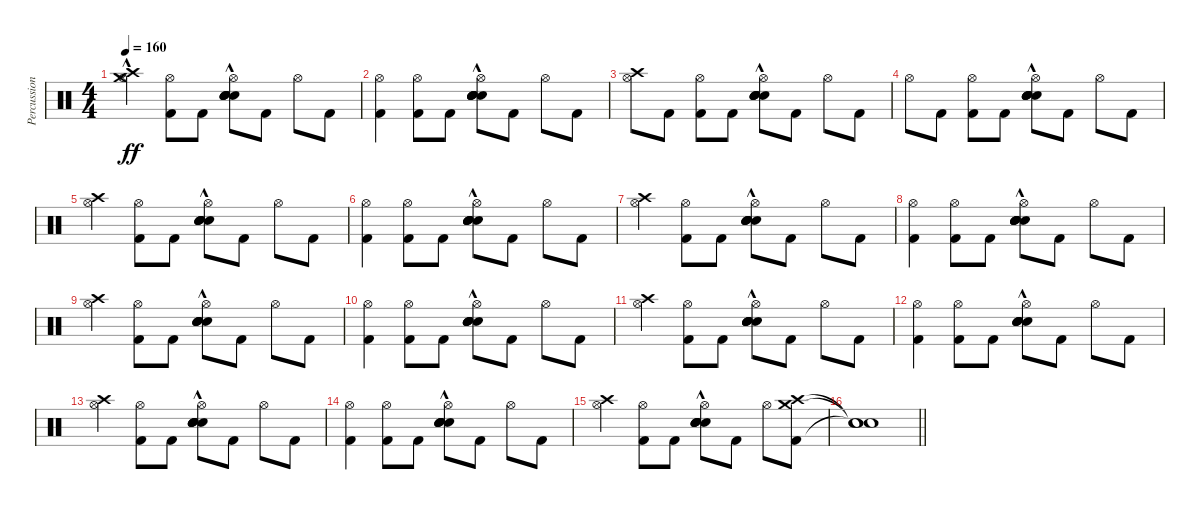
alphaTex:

\track ("Percussion" "Percussion") {instrument percussion}
\staff {score}
\articulation defaults
\ts (4 4)
\tempo 160
\clef neutral
\ks c
("Hi-Hat (open)"{hac} "Crash high (hit)"{hac} "Crash medium (hit)").4{dy ff} ("Hi-Hat (open)" "Kick (hit) 2").8 "Kick (hit) 2".8 ("Hi-Hat (open)" "Electric Snare (hit)"{hac} "Electric Snare (hit)"{hac} "Electric Snare (hit)"{hac} "Electric Snare (hit)"{hac} "Electric Snare (hit)"{hac}).8 "Kick (hit) 2".8 "Hi-Hat (open)".8 "Kick (hit) 2".8 |
("Hi-Hat (open)" "Kick (hit) 2").4 ("Hi-Hat (open)" "Kick (hit) 2").8 "Kick (hit) 2".8 ("Hi-Hat (open)" "Electric Snare (hit)"{hac} "Electric Snare (hit)"{hac} "Electric Snare (hit)"{hac} "Electric Snare (hit)"{hac} "Electric Snare (hit)"{hac}).8 "Kick (hit) 2".8 "Hi-Hat (open)".8 "Kick (hit) 2".8 |
("Hi-Hat (open)" "Crash high (hit)").8 "Kick (hit) 2".8 ("Hi-Hat (open)" "Kick (hit) 2").8 "Kick (hit) 2".8 ("Hi-Hat (open)" "Electric Snare (hit)"{hac} "Electric Snare (hit)"{hac} "Electric Snare (hit)"{hac} "Electric Snare (hit)"{hac} "Electric Snare (hit)"{hac}).8 "Kick (hit) 2".8 "Hi-Hat (open)".8 "Kick (hit) 2".8 |
"Hi-Hat (open)".8 "Kick (hit) 2".8 ("Hi-Hat (open)" "Kick (hit) 2").8 "Kick (hit) 2".8 ("Hi-Hat (open)" "Electric Snare (hit)"{hac} "Electric Snare (hit)"{hac} "Electric Snare (hit)"{hac} "Electric Snare (hit)"{hac} "Electric Snare (hit)"{hac}).8 "Kick (hit) 2".8 "Hi-Hat (open)".8 "Kick (hit) 2".8 |
("Hi-Hat (open)" "Crash high (hit)").4 ("Hi-Hat (open)" "Kick (hit) 2").8 "Kick (hit) 2".8 ("Hi-Hat (open)" "Electric Snare (hit)"{hac} "Electric Snare (hit)"{hac} "Electric Snare (hit)"{hac} "Electric Snare (hit)"{hac} "Electric Snare (hit)"{hac}).8 "Kick (hit) 2".8 "Hi-Hat (open)".8 "Kick (hit) 2".8 |
("Hi-Hat (open)" "Kick (hit) 2").4 ("Hi-Hat (open)" "Kick (hit) 2").8 "Kick (hit) 2".8 ("Hi-Hat (open)" "Electric Snare (hit)"{hac} "Electric Snare (hit)"{hac} "Electric Snare (hit)"{hac} "Electric Snare (hit)"{hac} "Electric Snare (hit)"{hac}).8 "Kick (hit) 2".8 "Hi-Hat (open)".8 "Kick (hit) 2".8 |
("Hi-Hat (open)" "Crash high (hit)").4 ("Hi-Hat (open)" "Kick (hit) 2").8 "Kick (hit) 2".8 ("Hi-Hat (open)" "Electric Snare (hit)"{hac} "Electric Snare (hit)"{hac} "Electric Snare (hit)"{hac} "Electric Snare (hit)"{hac} "Electric Snare (hit)"{hac}).8 "Kick (hit) 2".8 "Hi-Hat (open)".8 "Kick (hit) 2".8 |
("Hi-Hat (open)" "Kick (hit) 2").4 ("Hi-Hat (open)" "Kick (hit) 2").8 "Kick (hit) 2".8 ("Hi-Hat (open)" "Electric Snare (hit)"{hac} "Electric Snare (hit)"{hac} "Electric Snare (hit)"{hac} "Electric Snare (hit)"{hac} "Electric Snare (hit)"{hac}).8 "Kick (hit) 2".8 "Hi-Hat (open)".8 "Kick (hit) 2".8 |
("Hi-Hat (open)" "Crash high (hit)").4 ("Hi-Hat (open)" "Kick (hit) 2").8 "Kick (hit) 2".8 ("Hi-Hat (open)" "Electric Snare (hit)"{hac} "Electric Snare (hit)"{hac} "Electric Snare (hit)"{hac} "Electric Snare (hit)"{hac} "Electric Snare (hit)"{hac}).8 "Kick (hit) 2".8 "Hi-Hat (open)".8 "Kick (hit) 2".8 |
("Hi-Hat (open)" "Kick (hit) 2").4 ("Hi-Hat (open)" "Kick (hit) 2").8 "Kick (hit) 2".8 ("Hi-Hat (open)" "Electric Snare (hit)"{hac} "Electric Snare (hit)"{hac} "Electric Snare (hit)"{hac} "Electric Snare (hit)"{hac} "Electric Snare (hit)"{hac}).8 "Kick (hit) 2".8 "Hi-Hat (open)".8 "Kick (hit) 2".8 |
("Hi-Hat (open)" "Crash high (hit)").4 ("Hi-Hat (open)" "Kick (hit) 2").8 "Kick (hit) 2".8 ("Hi-Hat (open)" "Electric Snare (hit)"{hac} "Electric Snare (hit)"{hac} "Electric Snare (hit)"{hac} "Electric Snare (hit)"{hac} "Electric Snare (hit)"{hac}).8 "Kick (hit) 2".8 "Hi-Hat (open)".8 "Kick (hit) 2".8 |
("Hi-Hat (open)" "Kick (hit) 2").4 ("Hi-Hat (open)" "Kick (hit) 2").8 "Kick (hit) 2".8 ("Hi-Hat (open)" "Electric Snare (hit)"{hac} "Electric Snare (hit)"{hac} "Electric Snare (hit)"{hac} "Electric Snare (hit)"{hac} "Electric Snare (hit)"{hac}).8 "Kick (hit) 2".8 "Hi-Hat (open)".8 "Kick (hit) 2".8 |
("Hi-Hat (open)" "Crash high (hit)").4 ("Hi-Hat (open)" "Kick (hit) 2").8 "Kick (hit) 2".8 ("Hi-Hat (open)" "Electric Snare (hit)"{hac} "Electric Snare (hit)"{hac} "Electric Snare (hit)"{hac} "Electric Snare (hit)"{hac} "Electric Snare (hit)"{hac}).8 "Kick (hit) 2".8 "Hi-Hat (open)".8 "Kick (hit) 2".8 |
("Hi-Hat (open)" "Kick (hit) 2").4 ("Hi-Hat (open)" "Kick (hit) 2").8 "Kick (hit) 2".8 ("Hi-Hat (open)" "Electric Snare (hit)"{hac} "Electric Snare (hit)"{hac} "Electric Snare (hit)"{hac} "Electric Snare (hit)"{hac} "Electric Snare (hit)"{hac}).8 "Kick (hit) 2".8 "Hi-Hat (open)".8 "Kick (hit) 2".8 |
("Hi-Hat (open)" "Crash high (hit)").4 ("Hi-Hat (open)" "Kick (hit) 2").8 "Kick (hit) 2".8 ("Hi-Hat (open)" "Electric Snare (hit)"{hac} "Electric Snare (hit)"{hac} "Electric Snare (hit)"{hac} "Electric Snare (hit)"{hac} "Electric Snare (hit)"{hac}).8 "Kick (hit) 2".8 "Hi-Hat (open)".8 ("Kick (hit) 2" "Crash high (hit)" "Crash medium (hit)").8 |
\barLineRight lightlight
("Snare (hit)"{t} "Snare (hit)"{t} "Snare (hit)"{t}).1
